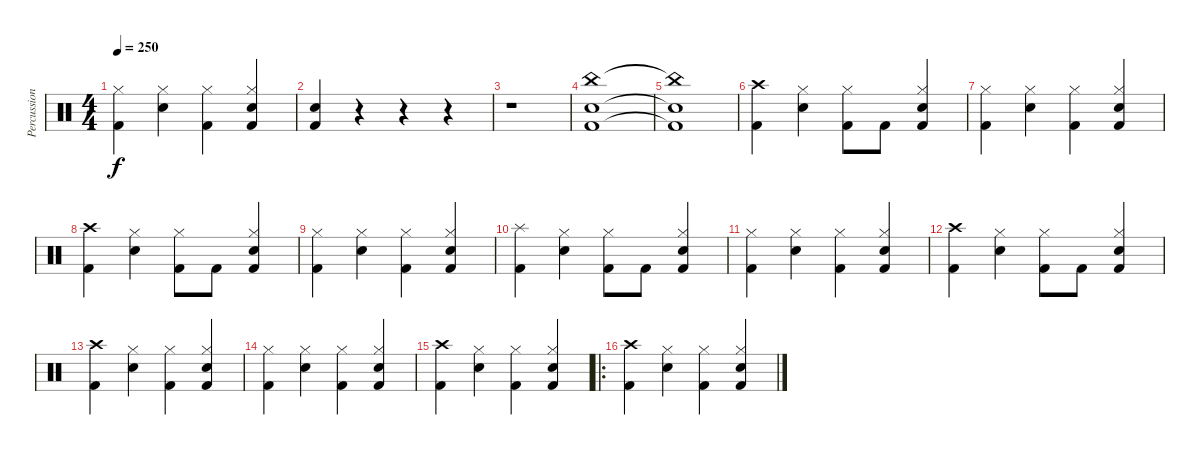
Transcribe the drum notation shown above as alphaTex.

\track ("Percussion" "Percussion") {instrument percussion}
\staff {score}
\articulation defaults
\ts (4 4)
\tempo 250
\clef neutral
\ks c
("Kick (hit) 2" "Hi-Hat (closed)").4{dy f} ("Electric Snare (hit)" "Hi-Hat (closed)").4 ("Kick (hit) 2" "Hi-Hat (closed)").4 ("Electric Snare (hit)" "Kick (hit) 2" "Hi-Hat (closed)").4 |
("Kick (hit) 2" "Electric Snare (hit)").4 r.4 r.4 r.4 |
r.1 |
("Electric Snare (hit)" "Kick (hit) 2" "China (hit)").1 |
("Electric Snare (hit)"{t} "Kick (hit) 2"{t} "China (hit)"{t}).1 |
("Kick (hit) 2" "Crash high (hit)").4 ("Electric Snare (hit)" "Hi-Hat (closed)").4 ("Kick (hit) 2" "Hi-Hat (closed)").8 "Kick (hit) 2".8 ("Electric Snare (hit)" "Kick (hit) 2" "Hi-Hat (closed)").4 |
("Kick (hit) 2" "Hi-Hat (closed)").4 ("Electric Snare (hit)" "Hi-Hat (closed)").4 ("Kick (hit) 2" "Hi-Hat (closed)").4 ("Electric Snare (hit)" "Kick (hit) 2" "Hi-Hat (closed)").4 |
("Kick (hit) 2" "Crash high (hit)").4 ("Electric Snare (hit)" "Hi-Hat (closed)").4 ("Kick (hit) 2" "Hi-Hat (closed)").8 "Kick (hit) 2".8 ("Electric Snare (hit)" "Kick (hit) 2" "Hi-Hat (closed)").4 |
("Kick (hit) 2" "Hi-Hat (closed)").4 ("Electric Snare (hit)" "Hi-Hat (closed)").4 ("Kick (hit) 2" "Hi-Hat (closed)").4 ("Electric Snare (hit)" "Kick (hit) 2" "Hi-Hat (closed)").4 |
("Kick (hit) 2" "Splash (hit)").4 ("Electric Snare (hit)" "Hi-Hat (closed)").4 ("Kick (hit) 2" "Hi-Hat (closed)").8 "Kick (hit) 2".8 ("Electric Snare (hit)" "Kick (hit) 2" "Hi-Hat (closed)").4 |
("Kick (hit) 2" "Hi-Hat (closed)").4 ("Electric Snare (hit)" "Hi-Hat (closed)").4 ("Kick (hit) 2" "Hi-Hat (closed)").4 ("Electric Snare (hit)" "Kick (hit) 2" "Hi-Hat (closed)").4 |
("Kick (hit) 2" "Crash high (hit)").4 ("Electric Snare (hit)" "Hi-Hat (closed)").4 ("Kick (hit) 2" "Hi-Hat (closed)").8 "Kick (hit) 2".8 ("Electric Snare (hit)" "Kick (hit) 2" "Hi-Hat (closed)").4 |
("Kick (hit) 2" "Crash high (hit)").4 ("Electric Snare (hit)" "Hi-Hat (closed)").4 ("Kick (hit) 2" "Hi-Hat (closed)").4 ("Electric Snare (hit)" "Kick (hit) 2" "Hi-Hat (closed)").4 |
("Kick (hit) 2" "Hi-Hat (closed)").4 ("Electric Snare (hit)" "Hi-Hat (closed)").4 ("Kick (hit) 2" "Hi-Hat (closed)").4 ("Electric Snare (hit)" "Kick (hit) 2" "Hi-Hat (closed)").4 |
("Kick (hit) 2" "Crash high (hit)").4 ("Electric Snare (hit)" "Hi-Hat (closed)").4 ("Kick (hit) 2" "Hi-Hat (closed)").4 ("Electric Snare (hit)" "Kick (hit) 2" "Hi-Hat (closed)").4 |
\ro
("Kick (hit) 2" "Crash high (hit)").4 ("Electric Snare (hit)" "Hi-Hat (closed)").4 ("Kick (hit) 2" "Hi-Hat (closed)").4 ("Electric Snare (hit)" "Kick (hit) 2" "Hi-Hat (closed)").4
